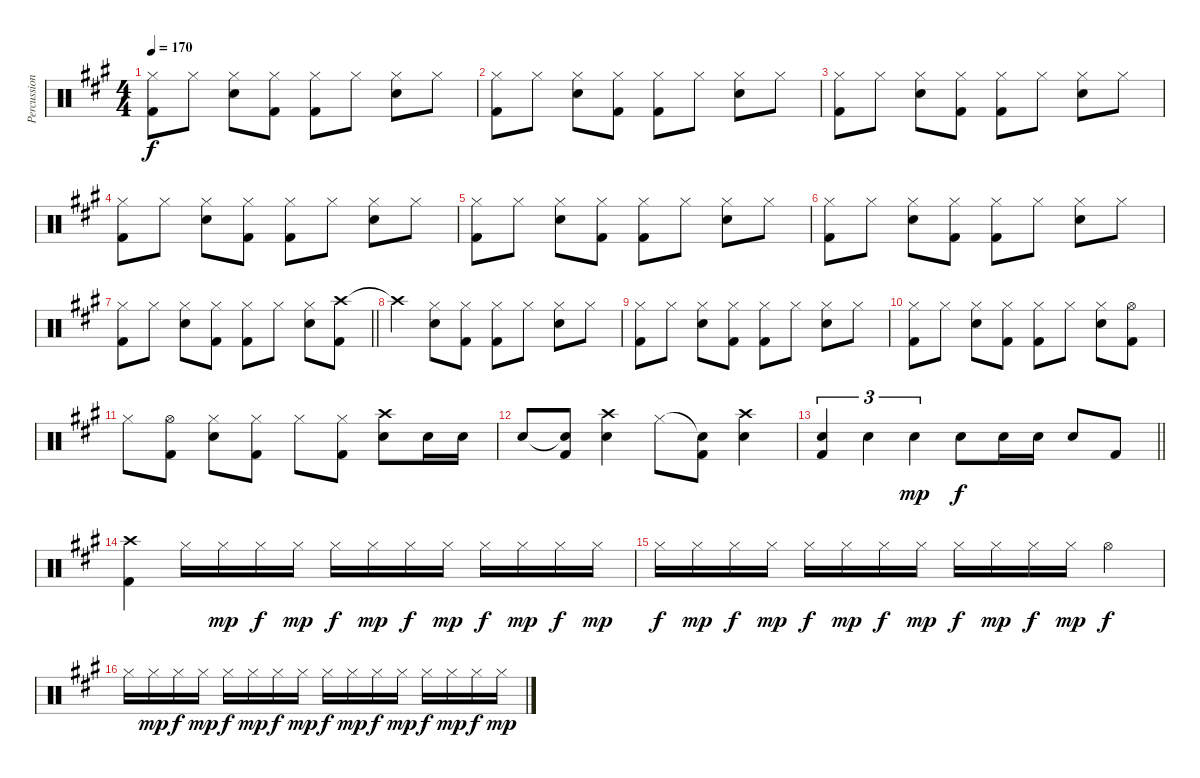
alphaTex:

\track ("Percussion" "Percussion") {instrument percussion}
\staff {score}
\articulation defaults
\ts (4 4)
\tempo 170
\clef neutral
\ks a
("Hi-Hat (closed)" "Kick (hit) 2").8{dy f} "Hi-Hat (closed)".8 ("Hi-Hat (closed)" "Snare (hit) 2").8 ("Hi-Hat (closed)" "Kick (hit) 2").8 ("Hi-Hat (closed)" "Kick (hit) 2").8 "Hi-Hat (closed)".8 ("Hi-Hat (closed)" "Snare (hit) 2").8 "Hi-Hat (closed)".8 |
("Hi-Hat (closed)" "Kick (hit) 2").8 "Hi-Hat (closed)".8 ("Hi-Hat (closed)" "Snare (hit) 2").8 ("Hi-Hat (closed)" "Kick (hit) 2").8 ("Hi-Hat (closed)" "Kick (hit) 2").8 "Hi-Hat (closed)".8 ("Hi-Hat (closed)" "Snare (hit) 2").8 "Hi-Hat (closed)".8 |
("Hi-Hat (closed)" "Kick (hit) 2").8 "Hi-Hat (closed)".8 ("Hi-Hat (closed)" "Snare (hit) 2").8 ("Hi-Hat (closed)" "Kick (hit) 2").8 ("Hi-Hat (closed)" "Kick (hit) 2").8 "Hi-Hat (closed)".8 ("Hi-Hat (closed)" "Snare (hit) 2").8 "Hi-Hat (closed)".8 |
("Hi-Hat (closed)" "Kick (hit) 2").8 "Hi-Hat (closed)".8 ("Hi-Hat (closed)" "Snare (hit) 2").8 ("Hi-Hat (closed)" "Kick (hit) 2").8 ("Hi-Hat (closed)" "Kick (hit) 2").8 "Hi-Hat (closed)".8 ("Hi-Hat (closed)" "Snare (hit) 2").8 "Hi-Hat (closed)".8 |
("Hi-Hat (closed)" "Kick (hit) 2").8 "Hi-Hat (closed)".8 ("Hi-Hat (closed)" "Snare (hit) 2").8 ("Hi-Hat (closed)" "Kick (hit) 2").8 ("Hi-Hat (closed)" "Kick (hit) 2").8 "Hi-Hat (closed)".8 ("Hi-Hat (closed)" "Snare (hit) 2").8 "Hi-Hat (closed)".8 |
("Hi-Hat (closed)" "Kick (hit) 2").8 "Hi-Hat (closed)".8 ("Hi-Hat (closed)" "Snare (hit) 2").8 ("Hi-Hat (closed)" "Kick (hit) 2").8 ("Hi-Hat (closed)" "Kick (hit) 2").8 "Hi-Hat (closed)".8 ("Hi-Hat (closed)" "Snare (hit) 2").8 "Hi-Hat (closed)".8 |
\barLineRight lightlight
("Hi-Hat (closed)" "Kick (hit) 2").8 "Hi-Hat (closed)".8 ("Hi-Hat (closed)" "Snare (hit) 2").8 ("Hi-Hat (closed)" "Kick (hit) 2").8 ("Hi-Hat (closed)" "Kick (hit) 2").8 "Hi-Hat (closed)".8 ("Hi-Hat (closed)" "Snare (hit) 2").8 ("Crash high (hit)" "Kick (hit) 2").8 |
"Crash high (hit)"{t}.4 ("Hi-Hat (closed)" "Snare (hit) 2").8 ("Hi-Hat (closed)" "Kick (hit) 2").8 ("Hi-Hat (closed)" "Kick (hit) 2").8 "Hi-Hat (closed)".8 ("Hi-Hat (closed)" "Snare (hit) 2").8 "Hi-Hat (closed)".8 |
("Hi-Hat (closed)" "Kick (hit) 2").8 "Hi-Hat (closed)".8 ("Hi-Hat (closed)" "Snare (hit) 2").8 ("Hi-Hat (closed)" "Kick (hit) 2").8 ("Hi-Hat (closed)" "Kick (hit) 2").8 "Hi-Hat (closed)".8 ("Hi-Hat (closed)" "Snare (hit) 2").8 "Hi-Hat (closed)".8 |
("Hi-Hat (closed)" "Kick (hit) 2").8 "Hi-Hat (closed)".8 ("Hi-Hat (closed)" "Snare (hit) 2").8 ("Hi-Hat (closed)" "Kick (hit) 2").8 ("Hi-Hat (closed)" "Kick (hit) 2").8 "Hi-Hat (closed)".8 ("Hi-Hat (closed)" "Snare (hit) 2").8 ("Hi-Hat (open)" "Kick (hit) 2").8 |
"Hi-Hat (closed)".8 ("Hi-Hat (open)" "Kick (hit) 2").8 ("Hi-Hat (closed)" "Snare (hit) 2").8 ("Hi-Hat (closed)" "Kick (hit) 2").8 "Hi-Hat (closed)".8 ("Hi-Hat (closed)" "Kick (hit) 2").8 ("Crash high (hit)" "Snare (hit) 2").8 "Snare (hit) 2".16 "Snare (hit) 2".16 |
"Snare (hit) 2".8 ("Snare (hit)"{t} "Kick (hit) 2").8 ("Crash high (hit)" "Snare (hit) 2").4 "Hi-Hat (closed)".8 ("Snare (hit)"{t} "Kick (hit) 2").8 ("Crash high (hit)" "Snare (hit) 2").4 |
\barLineRight lightlight
("Snare (hit) 2" "Kick (hit) 2").4{tu (3 2)} "Snare (hit) 2".4{tu (3 2)} "Snare (hit) 2".4{tu (3 2) dy mp} "Snare (hit) 2".8{dy f} "Snare (hit) 2".16 "Snare (hit) 2".16 "Snare (hit) 2".8 "Kick (hit) 2".8 |
("Crash high (hit)" "Kick (hit) 2").4{volume 9} "Hi-Hat (closed)".16 "Hi-Hat (closed)".16{dy mp} "Hi-Hat (closed)".16{dy f} "Hi-Hat (closed)".16{dy mp} "Hi-Hat (closed)".16{dy f} "Hi-Hat (closed)".16{dy mp} "Hi-Hat (closed)".16{dy f} "Hi-Hat (closed)".16{dy mp} "Hi-Hat (closed)".16{dy f} "Hi-Hat (closed)".16{dy mp} "Hi-Hat (closed)".16{dy f} "Hi-Hat (closed)".16{dy mp} |
"Hi-Hat (closed)".16{dy f} "Hi-Hat (closed)".16{dy mp} "Hi-Hat (closed)".16{dy f} "Hi-Hat (closed)".16{dy mp} "Hi-Hat (closed)".16{dy f} "Hi-Hat (closed)".16{dy mp} "Hi-Hat (closed)".16{dy f} "Hi-Hat (closed)".16{dy mp} "Hi-Hat (closed)".16{dy f} "Hi-Hat (closed)".16{dy mp} "Hi-Hat (closed)".16{dy f} "Hi-Hat (closed)".16{dy mp} "Hi-Hat (open)".4{dy f} |
"Hi-Hat (closed)".16 "Hi-Hat (closed)".16{dy mp} "Hi-Hat (closed)".16{dy f} "Hi-Hat (closed)".16{dy mp} "Hi-Hat (closed)".16{dy f} "Hi-Hat (closed)".16{dy mp} "Hi-Hat (closed)".16{dy f} "Hi-Hat (closed)".16{dy mp} "Hi-Hat (closed)".16{dy f} "Hi-Hat (closed)".16{dy mp} "Hi-Hat (closed)".16{dy f} "Hi-Hat (closed)".16{dy mp} "Hi-Hat (closed)".16{dy f} "Hi-Hat (closed)".16{dy mp} "Hi-Hat (closed)".16{dy f} "Hi-Hat (closed)".16{dy mp}
